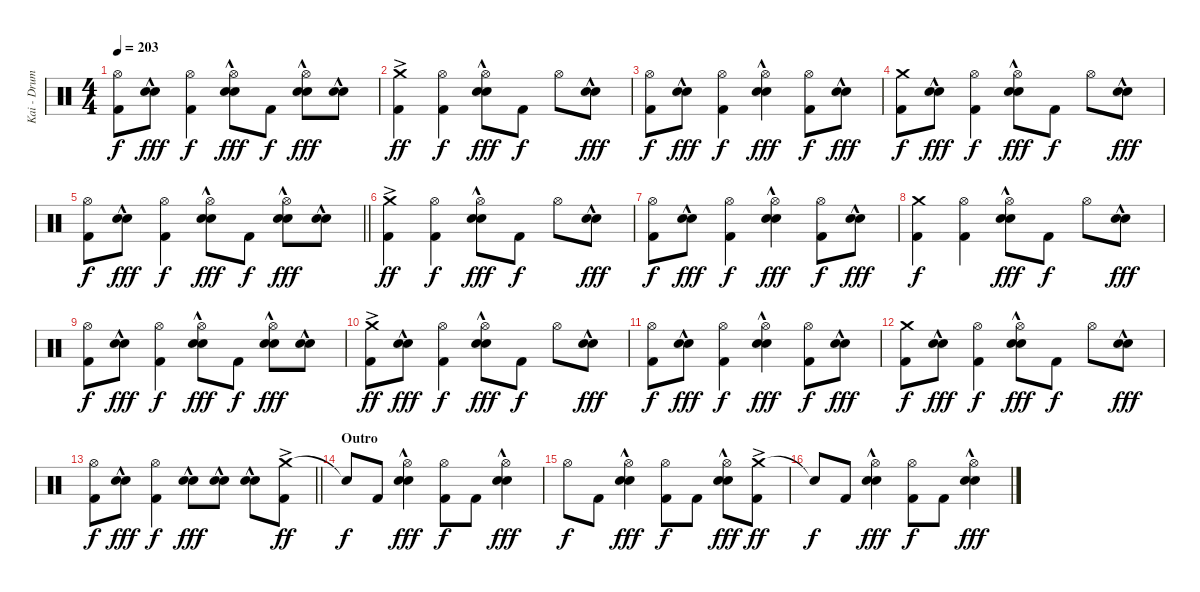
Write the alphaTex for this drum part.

\track ("Kai - Drums" "Kai - Drum") {instrument percussion}
\staff {score}
\articulation defaults
\ts (4 4)
\tempo 203
\clef neutral
\ks c
("Hi-Hat (open)" "Kick (hit) 2").8{dy f} ("Electric Snare (hit)"{hac} "Snare (hit) 2"{hac}).8{dy fff} ("Hi-Hat (open)" "Kick (hit) 2").4{dy f} ("Hi-Hat (open)" "Electric Snare (hit)"{hac} "Snare (hit) 2"{hac}).8{dy fff} "Kick (hit) 2".8{dy f} ("Hi-Hat (open)" "Electric Snare (hit)"{hac} "Snare (hit) 2"{hac}).8{dy fff} ("Electric Snare (hit)"{hac} "Snare (hit) 2"{hac}).8 |
("Crash medium (hit)"{ac} "Kick (hit) 2").4{dy ff} ("Hi-Hat (open)" "Kick (hit) 2").4{dy f} ("Hi-Hat (open)" "Electric Snare (hit)"{hac} "Snare (hit) 2"{hac}).8{dy fff} "Kick (hit) 2".8{dy f} "Hi-Hat (open)".8 ("Electric Snare (hit)"{hac} "Snare (hit) 2"{hac}).8{dy fff} |
("Hi-Hat (open)" "Kick (hit) 2").8{dy f} ("Electric Snare (hit)"{hac} "Snare (hit) 2"{hac}).8{dy fff} ("Hi-Hat (open)" "Kick (hit) 2").4{dy f} ("Hi-Hat (open)" "Electric Snare (hit)"{hac} "Snare (hit) 2"{hac}).4{dy fff} ("Hi-Hat (open)" "Kick (hit) 2").8{dy f} ("Electric Snare (hit)"{hac} "Snare (hit) 2"{hac}).8{dy fff} |
("Crash medium (hit)" "Kick (hit) 2").8{dy f} ("Electric Snare (hit)"{hac} "Snare (hit) 2"{hac}).8{dy fff} ("Hi-Hat (open)" "Kick (hit) 2").4{dy f} ("Hi-Hat (open)" "Electric Snare (hit)"{hac} "Snare (hit) 2"{hac}).8{dy fff} "Kick (hit) 2".8{dy f} "Hi-Hat (open)".8 ("Electric Snare (hit)"{hac} "Snare (hit) 2"{hac}).8{dy fff} |
\barLineRight lightlight
("Hi-Hat (open)" "Kick (hit) 2").8{dy f} ("Electric Snare (hit)"{hac} "Snare (hit) 2"{hac}).8{dy fff} ("Hi-Hat (open)" "Kick (hit) 2").4{dy f} ("Hi-Hat (open)" "Electric Snare (hit)"{hac} "Snare (hit) 2"{hac}).8{dy fff} "Kick (hit) 2".8{dy f} ("Hi-Hat (open)" "Electric Snare (hit)"{hac} "Snare (hit) 2"{hac}).8{dy fff} ("Electric Snare (hit)"{hac} "Snare (hit) 2"{hac}).8 |
\section ("" "")
("Crash medium (hit)"{ac} "Kick (hit) 2").4{dy ff} ("Hi-Hat (open)" "Kick (hit) 2").4{dy f} ("Hi-Hat (open)" "Electric Snare (hit)"{hac} "Snare (hit) 2"{hac}).8{dy fff} "Kick (hit) 2".8{dy f} "Hi-Hat (open)".8 ("Electric Snare (hit)"{hac} "Snare (hit) 2"{hac}).8{dy fff} |
("Hi-Hat (open)" "Kick (hit) 2").8{dy f} ("Electric Snare (hit)"{hac} "Snare (hit) 2"{hac}).8{dy fff} ("Hi-Hat (open)" "Kick (hit) 2").4{dy f} ("Hi-Hat (open)" "Electric Snare (hit)"{hac} "Snare (hit) 2"{hac}).4{dy fff} ("Hi-Hat (open)" "Kick (hit) 2").8{dy f} ("Electric Snare (hit)"{hac} "Snare (hit) 2"{hac}).8{dy fff} |
("Crash medium (hit)" "Kick (hit) 2").4{dy f} ("Hi-Hat (open)" "Kick (hit) 2").4 ("Hi-Hat (open)" "Electric Snare (hit)"{hac} "Snare (hit) 2"{hac}).8{dy fff} "Kick (hit) 2".8{dy f} "Hi-Hat (open)".8 ("Electric Snare (hit)"{hac} "Snare (hit) 2"{hac}).8{dy fff} |
("Hi-Hat (open)" "Kick (hit) 2").8{dy f} ("Electric Snare (hit)"{hac} "Snare (hit) 2"{hac}).8{dy fff} ("Hi-Hat (open)" "Kick (hit) 2").4{dy f} ("Hi-Hat (open)" "Electric Snare (hit)"{hac} "Snare (hit) 2"{hac}).8{dy fff} "Kick (hit) 2".8{dy f} ("Hi-Hat (open)" "Electric Snare (hit)"{hac} "Snare (hit) 2"{hac}).8{dy fff} ("Electric Snare (hit)"{hac} "Snare (hit) 2"{hac}).8 |
("Crash medium (hit)"{ac} "Kick (hit) 2").8{dy ff} ("Electric Snare (hit)"{hac} "Snare (hit) 2"{hac}).8{dy fff} ("Hi-Hat (open)" "Kick (hit) 2").4{dy f} ("Hi-Hat (open)" "Electric Snare (hit)"{hac} "Snare (hit) 2"{hac}).8{dy fff} "Kick (hit) 2".8{dy f} "Hi-Hat (open)".8 ("Electric Snare (hit)"{hac} "Snare (hit) 2"{hac}).8{dy fff} |
("Hi-Hat (open)" "Kick (hit) 2").8{dy f} ("Electric Snare (hit)"{hac} "Snare (hit) 2"{hac}).8{dy fff} ("Hi-Hat (open)" "Kick (hit) 2").4{dy f} ("Hi-Hat (open)" "Electric Snare (hit)"{hac} "Snare (hit) 2"{hac}).4{dy fff} ("Hi-Hat (open)" "Kick (hit) 2").8{dy f} ("Electric Snare (hit)"{hac} "Snare (hit) 2"{hac}).8{dy fff} |
("Crash medium (hit)" "Kick (hit) 2").8{dy f} ("Electric Snare (hit)"{hac} "Snare (hit) 2"{hac}).8{dy fff} ("Hi-Hat (open)" "Kick (hit) 2").4{dy f} ("Hi-Hat (open)" "Electric Snare (hit)"{hac} "Snare (hit) 2"{hac}).8{dy fff} "Kick (hit) 2".8{dy f} "Hi-Hat (open)".8 ("Electric Snare (hit)"{hac} "Snare (hit) 2"{hac}).8{dy fff} |
\barLineRight lightlight
("Hi-Hat (open)" "Kick (hit) 2").8{dy f} ("Electric Snare (hit)"{hac} "Snare (hit) 2"{hac}).8{dy fff} ("Hi-Hat (open)" "Kick (hit) 2").4{dy f} ("Electric Snare (hit)"{hac} "Snare (hit) 2"{hac}).8{dy fff} ("Electric Snare (hit)"{hac} "Snare (hit) 2"{hac}).8 ("Electric Snare (hit)"{hac} "Snare (hit) 2"{hac}).8 ("Crash medium (hit)"{ac} "Kick (hit) 2").8{dy ff} |
\section ("" "Outro")
"Snare (hit)"{t}.8{dy f} "Kick (hit) 2".8 ("Hi-Hat (open)" "Electric Snare (hit)"{hac} "Snare (hit) 2"{hac}).4{dy fff} ("Hi-Hat (open)" "Kick (hit) 2").8{dy f} "Kick (hit) 2".8 ("Hi-Hat (open)" "Electric Snare (hit)"{hac} "Snare (hit) 2"{hac}).4{dy fff} |
"Hi-Hat (open)".8{dy f} "Kick (hit) 2".8 ("Hi-Hat (open)" "Electric Snare (hit)"{hac} "Snare (hit) 2"{hac}).4{dy fff} ("Hi-Hat (open)" "Kick (hit) 2").8{dy f} "Kick (hit) 2".8 ("Hi-Hat (open)" "Electric Snare (hit)"{hac} "Snare (hit) 2"{hac}).8{dy fff} ("Crash medium (hit)"{ac} "Kick (hit) 2").8{dy ff} |
"Snare (hit)"{t}.8{dy f} "Kick (hit) 2".8 ("Hi-Hat (open)" "Electric Snare (hit)"{hac} "Snare (hit) 2"{hac}).4{dy fff} ("Hi-Hat (open)" "Kick (hit) 2").8{dy f} "Kick (hit) 2".8 ("Hi-Hat (open)" "Electric Snare (hit)"{hac} "Snare (hit) 2"{hac}).4{dy fff}
